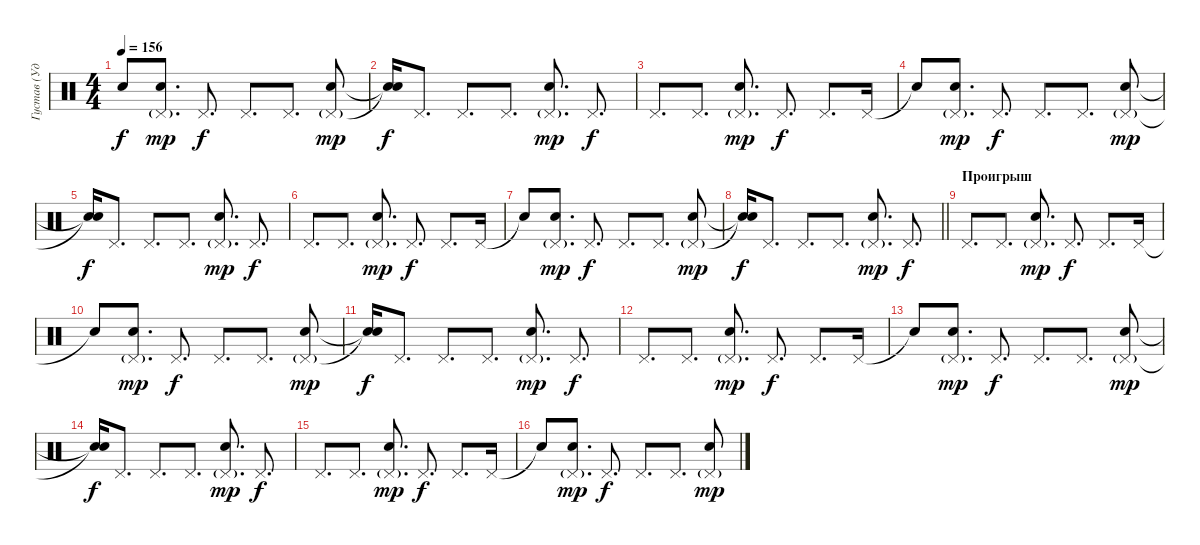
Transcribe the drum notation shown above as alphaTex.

\track ("Густав (Ударные)" "Густав (Уд") {instrument percussion}
\staff {score}
\articulation defaults
\ts (4 4)
\tempo 156
\clef neutral
\ks c "Snare (hit)"{t}.8{dy f}
("Pedal Hi-Hat (hit)"{g} "Electric Snare (hit)").8{d dy mp} "Pedal Hi-Hat (hit)".8{d dy f} "Pedal Hi-Hat (hit)".8{d} "Pedal Hi-Hat (hit)".8{d} ("Pedal Hi-Hat (hit)"{g} "Electric Snare (hit)").8{dy mp} |
("Snare (hit)"{t} "Snare (hit)"{t}).16{dy f} "Pedal Hi-Hat (hit)".8{d} "Pedal Hi-Hat (hit)".8{d} "Pedal Hi-Hat (hit)".8{d} ("Pedal Hi-Hat (hit)"{g} "Electric Snare (hit)").8{d dy mp} "Pedal Hi-Hat (hit)".8{d dy f} |
"Pedal Hi-Hat (hit)".8{d} "Pedal Hi-Hat (hit)".8{d} ("Pedal Hi-Hat (hit)"{g} "Electric Snare (hit)").8{d dy mp} "Pedal Hi-Hat (hit)".8{d dy f} "Pedal Hi-Hat (hit)".8{d} "Pedal Hi-Hat (hit)".16 |
"Snare (hit)"{t}.8 ("Pedal Hi-Hat (hit)"{g} "Electric Snare (hit)").8{d dy mp} "Pedal Hi-Hat (hit)".8{d dy f} "Pedal Hi-Hat (hit)".8{d} "Pedal Hi-Hat (hit)".8{d} ("Pedal Hi-Hat (hit)"{g} "Electric Snare (hit)").8{dy mp} |
("Snare (hit)"{t} "Snare (hit)"{t}).16{dy f} "Pedal Hi-Hat (hit)".8{d} "Pedal Hi-Hat (hit)".8{d} "Pedal Hi-Hat (hit)".8{d} ("Pedal Hi-Hat (hit)"{g} "Electric Snare (hit)").8{d dy mp} "Pedal Hi-Hat (hit)".8{d dy f} |
"Pedal Hi-Hat (hit)".8{d} "Pedal Hi-Hat (hit)".8{d} ("Pedal Hi-Hat (hit)"{g} "Electric Snare (hit)").8{d dy mp} "Pedal Hi-Hat (hit)".8{d dy f} "Pedal Hi-Hat (hit)".8{d} "Pedal Hi-Hat (hit)".16 |
"Snare (hit)"{t}.8 ("Pedal Hi-Hat (hit)"{g} "Electric Snare (hit)").8{d dy mp} "Pedal Hi-Hat (hit)".8{d dy f} "Pedal Hi-Hat (hit)".8{d} "Pedal Hi-Hat (hit)".8{d} ("Pedal Hi-Hat (hit)"{g} "Electric Snare (hit)").8{dy mp} |
\barLineRight lightlight
("Snare (hit)"{t} "Snare (hit)"{t}).16{dy f} "Pedal Hi-Hat (hit)".8{d} "Pedal Hi-Hat (hit)".8{d} "Pedal Hi-Hat (hit)".8{d} ("Pedal Hi-Hat (hit)"{g} "Electric Snare (hit)").8{d dy mp} "Pedal Hi-Hat (hit)".8{d dy f} |
\section ("" "Проигрыш")
"Pedal Hi-Hat (hit)".8{d} "Pedal Hi-Hat (hit)".8{d} ("Pedal Hi-Hat (hit)"{g} "Electric Snare (hit)").8{d dy mp} "Pedal Hi-Hat (hit)".8{d dy f} "Pedal Hi-Hat (hit)".8{d} "Pedal Hi-Hat (hit)".16 |
"Snare (hit)"{t}.8 ("Pedal Hi-Hat (hit)"{g} "Electric Snare (hit)").8{d dy mp} "Pedal Hi-Hat (hit)".8{d dy f} "Pedal Hi-Hat (hit)".8{d} "Pedal Hi-Hat (hit)".8{d} ("Pedal Hi-Hat (hit)"{g} "Electric Snare (hit)").8{dy mp} |
("Snare (hit)"{t} "Snare (hit)"{t}).16{dy f} "Pedal Hi-Hat (hit)".8{d} "Pedal Hi-Hat (hit)".8{d} "Pedal Hi-Hat (hit)".8{d} ("Pedal Hi-Hat (hit)"{g} "Electric Snare (hit)").8{d dy mp} "Pedal Hi-Hat (hit)".8{d dy f} |
"Pedal Hi-Hat (hit)".8{d} "Pedal Hi-Hat (hit)".8{d} ("Pedal Hi-Hat (hit)"{g} "Electric Snare (hit)").8{d dy mp} "Pedal Hi-Hat (hit)".8{d dy f} "Pedal Hi-Hat (hit)".8{d} "Pedal Hi-Hat (hit)".16 |
"Snare (hit)"{t}.8 ("Pedal Hi-Hat (hit)"{g} "Electric Snare (hit)").8{d dy mp} "Pedal Hi-Hat (hit)".8{d dy f} "Pedal Hi-Hat (hit)".8{d} "Pedal Hi-Hat (hit)".8{d} ("Pedal Hi-Hat (hit)"{g} "Electric Snare (hit)").8{dy mp} |
("Snare (hit)"{t} "Snare (hit)"{t}).16{dy f} "Pedal Hi-Hat (hit)".8{d} "Pedal Hi-Hat (hit)".8{d} "Pedal Hi-Hat (hit)".8{d} ("Pedal Hi-Hat (hit)"{g} "Electric Snare (hit)").8{d dy mp} "Pedal Hi-Hat (hit)".8{d dy f} |
"Pedal Hi-Hat (hit)".8{d} "Pedal Hi-Hat (hit)".8{d} ("Pedal Hi-Hat (hit)"{g} "Electric Snare (hit)").8{d dy mp} "Pedal Hi-Hat (hit)".8{d dy f} "Pedal Hi-Hat (hit)".8{d} "Pedal Hi-Hat (hit)".16 |
"Snare (hit)"{t}.8 ("Pedal Hi-Hat (hit)"{g} "Electric Snare (hit)").8{d dy mp} "Pedal Hi-Hat (hit)".8{d dy f} "Pedal Hi-Hat (hit)".8{d} "Pedal Hi-Hat (hit)".8{d} ("Pedal Hi-Hat (hit)"{g} "Electric Snare (hit)").8{dy mp}
